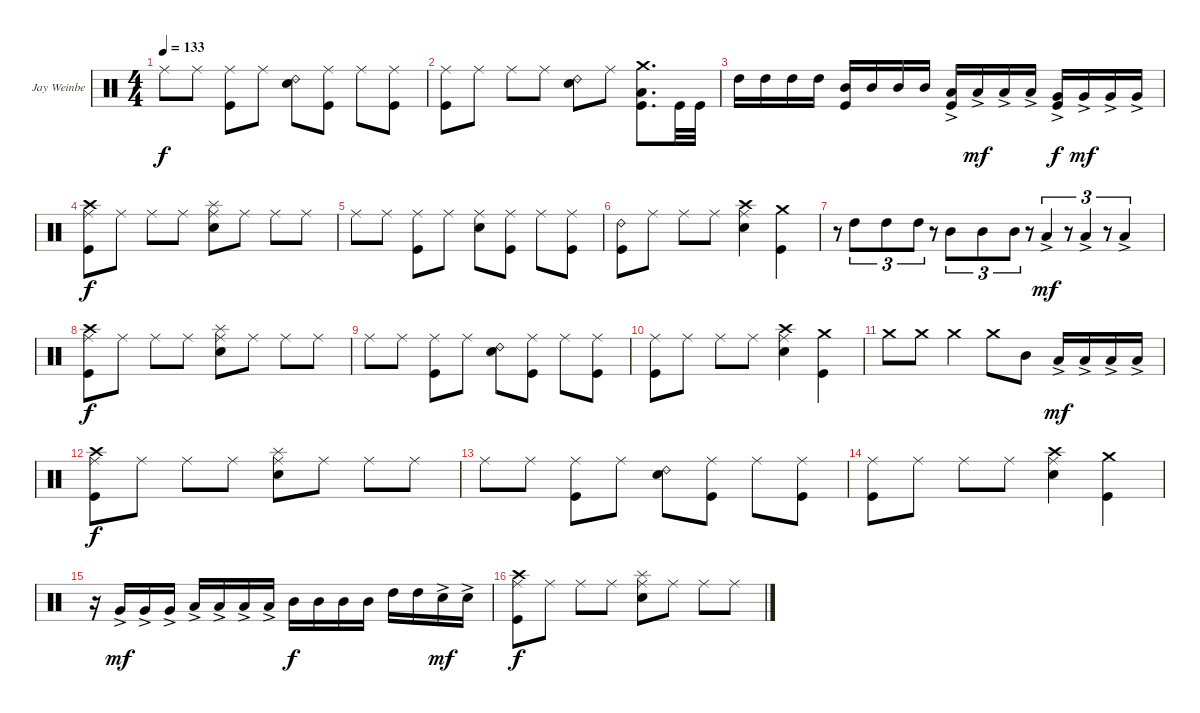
\bracketExtendMode groupsimilarinstruments
\firstSystemTrackNameOrientation horizontal
\otherSystemsTrackNameOrientation horizontal
\track ("Jay Weinberg" "Jay Weinbe") {instrument percussion}
\staff {score}
\articulation defaults
\ts (4 4)
\tempo 133
\clef neutral
\ks c "Ride (middle)".8{dy f} "Ride (middle)".8
("Ride (middle)" "Kick (hit)").8 "Ride (middle)".8 ("Ride (bell) 2" "Snare (hit) 2").8 ("Ride (middle)" "Kick (hit)").8 "Ride (middle)".8 ("Ride (middle)" "Kick (hit)").8 |
("Ride (middle)" "Kick (hit)").8 "Ride (middle)".8 "Ride (middle)".8 "Ride (middle)".8 ("Ride (bell) 2" "Snare (hit) 2").8 "Ride (middle)".8 ("Kick (hit)" "Low Tom (hit)" "Crash medium (hit)").8{d} "Kick (hit)".32 "Kick (hit)".32 |
"High Tom (hit)".16 "High Tom (hit)".16 "High Tom (hit)".16 "High Tom (hit)".16 ("Mid Tom (hit)" "Kick (hit)").16 "Mid Tom (hit)".16 "Mid Tom (hit)".16 "Mid Tom (hit)".16 ("Low Tom (hit)"{ac} "Kick (hit)").16 "Low Tom (hit)"{ac}.16{dy mf} "Low Tom (hit)"{ac}.16 "Low Tom (hit)"{ac}.16 ("Very Low Tom (hit)"{ac} "Kick (hit)").16{dy f} "Very Low Tom (hit)"{ac}.16{dy mf} "Very Low Tom (hit)"{ac}.16 "Very Low Tom (hit)"{ac}.16 |
("Crash high (hit)" "Ride (middle)" "Kick (hit)").8{dy f} "Ride (middle)".8 "Ride (middle)".8 "Ride (middle)".8 ("Ride (middle)" "Splash (hit)" "Snare (hit) 2").8 "Ride (middle)".8 "Ride (middle)".8 "Ride (middle)".8 |
"Ride (middle)".8 "Ride (middle)".8 ("Ride (middle)" "Kick (hit)").8 "Ride (middle)".8 ("Ride (middle)" "Snare (hit) 2").8 ("Ride (middle)" "Kick (hit)").8 "Ride (middle)".8 ("Ride (middle)" "Kick (hit)").8 |
("Ride (bell) 2" "Kick (hit)").8 "Ride (middle)".8 "Ride (middle)".8 "Ride (middle)".8 ("Ride (middle)" "Snare (hit) 2" "Crash high (hit)").4 ("Kick (hit)" "Crash medium (hit)").4 |
r.8{gr} "High Tom (hit)".8{tu (3 2)} "High Tom (hit)".8{tu (3 2)} "High Tom (hit)".8{tu (3 2)} r.8{gr} "Mid Tom (hit)".8{tu (3 2)} "Mid Tom (hit)".8{tu (3 2)} "Mid Tom (hit)".8{tu (3 2)} r.8{gr} "Low Tom (hit)"{ac}.4{tu (3 2) dy mf} r.8{gr} "Low Tom (hit)"{ac}.4{tu (3 2)} r.8{gr} "Low Tom (hit)"{ac}.4{tu (3 2)} |
("Crash high (hit)" "Ride (middle)" "Kick (hit)").8{dy f} "Ride (middle)".8 "Ride (middle)".8 "Ride (middle)".8 ("Ride (middle)" "Splash (hit)" "Snare (hit) 2").8 "Ride (middle)".8 "Ride (middle)".8 "Ride (middle)".8 |
"Ride (middle)".8 "Ride (middle)".8 ("Ride (middle)" "Kick (hit)").8 "Ride (middle)".8 ("Ride (bell) 2" "Snare (hit) 2").8 ("Ride (middle)" "Kick (hit)").8 "Ride (middle)".8 ("Ride (middle)" "Kick (hit)").8 |
("Ride (middle)" "Kick (hit)").8 "Ride (middle)".8 "Ride (middle)".8 "Ride (middle)".8 ("Snare (hit) 2" "Ride (middle)" "Crash high (hit)").4 ("Kick (hit)" "Crash medium (hit)").4 |
"Crash medium (hit)".8 "Crash medium (hit)".8 "Crash medium (hit)".4 "Crash medium (hit)".8 "Mid Tom (hit)".8 "Low Tom (hit)"{ac}.16{dy mf} "Low Tom (hit)"{ac}.16 "Low Tom (hit)"{ac}.16 "Low Tom (hit)"{ac}.16 |
("Crash high (hit)" "Ride (middle)" "Kick (hit)").8{dy f} "Ride (middle)".8 "Ride (middle)".8 "Ride (middle)".8 ("Ride (middle)" "Splash (hit)" "Snare (hit) 2").8 "Ride (middle)".8 "Ride (middle)".8 "Ride (middle)".8 |
"Ride (middle)".8 "Ride (middle)".8 ("Ride (middle)" "Kick (hit)").8 "Ride (middle)".8 ("Ride (bell) 2" "Snare (hit) 2").8 ("Ride (middle)" "Kick (hit)").8 "Ride (middle)".8 ("Ride (middle)" "Kick (hit)").8 |
("Ride (middle)" "Kick (hit)").8 "Ride (middle)".8 "Ride (middle)".8 "Ride (middle)".8 ("Snare (hit) 2" "Ride (middle)" "Crash high (hit)").4 ("Kick (hit)" "Crash medium (hit)").4 |
r.16 "Very Low Tom (hit)"{ac}.16{dy mf} "Very Low Tom (hit)"{ac}.16 "Very Low Tom (hit)"{ac}.16 "Low Tom (hit)"{ac}.16 "Low Tom (hit)"{ac}.16 "Low Tom (hit)"{ac}.16 "Low Tom (hit)"{ac}.16 "Mid Tom (hit)".16{dy f} "Mid Tom (hit)".16 "Mid Tom (hit)".16 "Mid Tom (hit)".16 "High Tom (hit)".16 "High Tom (hit)".16 "Snare (hit) 2"{ac}.16{dy mf} "Snare (hit) 2"{ac}.16 |
("Crash high (hit)" "Ride (middle)" "Kick (hit)").8{dy f} "Ride (middle)".8 "Ride (middle)".8 "Ride (middle)".8 ("Ride (middle)" "Splash (hit)" "Snare (hit) 2").8 "Ride (middle)".8 "Ride (middle)".8 "Ride (middle)".8
